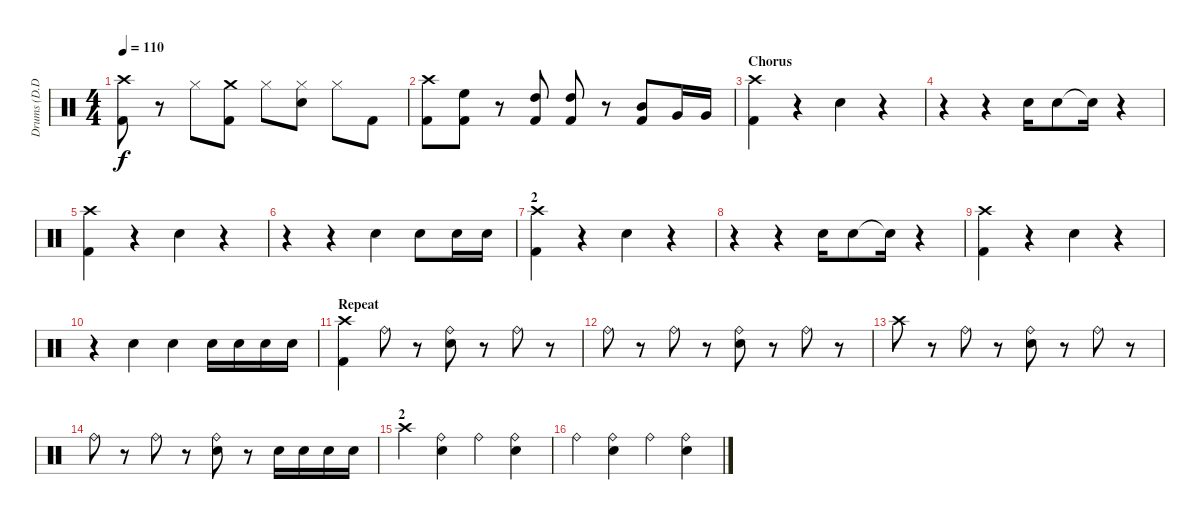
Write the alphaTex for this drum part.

\track ("Drums (D.D. Bucco)" "Drums (D.D") {instrument percussion}
\staff {score}
\articulation defaults
\ts (4 4)
\tempo 110
\clef neutral
\ks c
("Crash high (hit)" "Kick (hit) 2").8{dy f} r.8 "Hi-Hat (closed)".8 ("Crash medium (hit)" "Kick (hit) 2").8 "Hi-Hat (closed)".8 ("Hi-Hat (closed)" "Snare (hit) 2").8 "Hi-Hat (closed)".8 "Kick (hit) 2".8 |
("Crash high (hit)" "Kick (hit) 2").8 ("High Floor Tom (hit)" "Kick (hit) 2").8 r.8 ("High Tom (hit)" "Kick (hit) 2").8 ("High Tom (hit)" "Kick (hit) 2").8 r.8 ("Mid Tom (hit)" "Kick (hit) 2").8 "Very Low Tom (hit)".16 "Very Low Tom (hit)".16 |
\section ("" "Chorus")
("Crash high (hit)" "Kick (hit) 2").4 r.4 "Snare (hit) 2".4 r.4 |
r.4 r.4 "Snare (hit) 2".16 "Snare (hit) 2".8 "Snare (hit)"{t}.16 r.4 |
("Crash high (hit)" "Kick (hit) 2").4 r.4 "Snare (hit) 2".4 r.4 |
r.4 r.4 "Snare (hit) 2".4 "Snare (hit) 2".8 "Snare (hit) 2".16 "Snare (hit) 2".16 |
\section ("" "2")
("Crash high (hit)" "Kick (hit) 2").4 r.4 "Snare (hit) 2".4 r.4 |
r.4 r.4 "Snare (hit) 2".16 "Snare (hit) 2".8 "Snare (hit)"{t}.16 r.4 |
("Crash high (hit)" "Kick (hit) 2").4 r.4 "Snare (hit) 2".4 r.4 |
r.4 "Snare (hit) 2".4 "Snare (hit) 2".4 "Snare (hit) 2".16 "Snare (hit) 2".16 "Snare (hit) 2".16 "Snare (hit) 2".16 |
\section ("" "Repeat")
("Crash high (hit)" "Kick (hit) 2").4 "Ride (bell)".8 r.8 ("Ride (bell)" "Snare (hit) 2").8 r.8 "Ride (bell)".8 r.8 |
"Ride (bell)".8 r.8 "Ride (bell)".8 r.8 ("Ride (bell)" "Snare (hit) 2").8 r.8 "Ride (bell)".8 r.8 |
"Crash high (hit)".8 r.8 "Ride (bell)".8 r.8 ("Ride (bell)" "Snare (hit) 2").8 r.8 "Ride (bell)".8 r.8 |
"Ride (bell)".8 r.8 "Ride (bell)".8 r.8 ("Ride (bell)" "Snare (hit) 2").8 r.8 "Snare (hit) 2".16 "Snare (hit) 2".16 "Snare (hit) 2".16 "Snare (hit) 2".16 |
\section ("" "2")
"Crash high (hit)".4 ("Ride (bell)" "Snare (hit) 2").4 "Ride (bell)".4 ("Ride (bell)" "Snare (hit) 2").4 |
"Ride (bell)".4 ("Ride (bell)" "Snare (hit) 2").4 "Ride (bell)".4 ("Ride (bell)" "Snare (hit) 2").4
